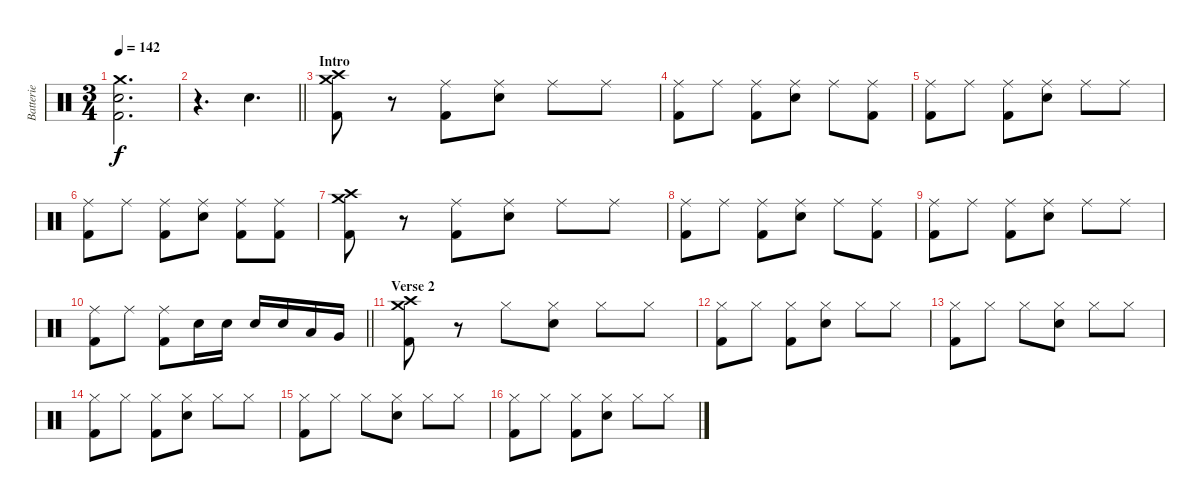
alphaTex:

\track ("Batterie" "Batterie") {instrument percussion}
\staff {score}
\articulation defaults
\ts (3 4)
\tempo 142
\clef neutral
\ks c
("Crash medium (hit)" "Electric Snare (hit)" "Kick (hit) 2").2{d dy f} |
\barLineRight lightlight
r.4{d} "Electric Snare (hit)".4{d} |
\section ("" "Intro")
("Crash medium (hit)" "Crash high (hit)" "Kick (hit) 2").8 r.8 ("Ride (middle)" "Kick (hit) 2").8 ("Ride (middle)" "Electric Snare (hit)").8 "Ride (middle)".8 "Ride (middle)".8 |
("Ride (middle)" "Kick (hit) 2").8 "Ride (middle)".8 ("Ride (middle)" "Kick (hit) 2").8 ("Ride (middle)" "Electric Snare (hit)").8 "Ride (middle)".8 ("Ride (middle)" "Kick (hit) 2").8 |
("Ride (middle)" "Kick (hit) 2").8 "Ride (middle)".8 ("Ride (middle)" "Kick (hit) 2").8 ("Ride (middle)" "Electric Snare (hit)").8 "Ride (middle)".8 "Ride (middle)".8 |
("Ride (middle)" "Kick (hit) 2").8 "Ride (middle)".8 ("Ride (middle)" "Kick (hit) 2").8 ("Ride (middle)" "Electric Snare (hit)").8 ("Ride (middle)" "Kick (hit) 2").8 ("Ride (middle)" "Kick (hit) 2").8 |
("Crash medium (hit)" "Crash high (hit)" "Kick (hit) 2").8 r.8 ("Ride (middle)" "Kick (hit) 2").8 ("Ride (middle)" "Electric Snare (hit)").8 "Ride (middle)".8 "Ride (middle)".8 |
("Ride (middle)" "Kick (hit) 2").8 "Ride (middle)".8 ("Ride (middle)" "Kick (hit) 2").8 ("Ride (middle)" "Electric Snare (hit)").8 "Ride (middle)".8 ("Ride (middle)" "Kick (hit) 2").8 |
("Ride (middle)" "Kick (hit) 2").8 "Ride (middle)".8 ("Ride (middle)" "Kick (hit) 2").8 ("Ride (middle)" "Electric Snare (hit)").8 "Ride (middle)".8 "Ride (middle)".8 |
\barLineRight lightlight
("Ride (middle)" "Kick (hit) 2").8 "Ride (middle)".8 ("Ride (middle)" "Kick (hit) 2").8 "Electric Snare (hit)".16 "Electric Snare (hit)".16 "Electric Snare (hit)".16 "Electric Snare (hit)".16 "Low Tom (hit)".16 "Very Low Tom (hit)".16 |
\section ("" "Verse 2")
("Crash medium (hit)" "Crash high (hit)" "Kick (hit) 2").8 r.8 "Hi-Hat (closed)".8 ("Hi-Hat (closed)" "Electric Snare (hit)").8 "Hi-Hat (closed)".8 "Hi-Hat (closed)".8 |
("Hi-Hat (closed)" "Kick (hit) 2").8 "Hi-Hat (closed)".8 ("Hi-Hat (closed)" "Kick (hit) 2").8 ("Hi-Hat (closed)" "Electric Snare (hit)").8 "Hi-Hat (closed)".8 "Hi-Hat (closed)".8 |
("Hi-Hat (closed)" "Kick (hit) 2").8 "Hi-Hat (closed)".8 "Hi-Hat (closed)".8 ("Hi-Hat (closed)" "Electric Snare (hit)").8 "Hi-Hat (closed)".8 "Hi-Hat (closed)".8 |
("Hi-Hat (closed)" "Kick (hit) 2").8 "Hi-Hat (closed)".8 ("Hi-Hat (closed)" "Kick (hit) 2").8 ("Hi-Hat (closed)" "Electric Snare (hit)").8 "Hi-Hat (closed)".8 "Hi-Hat (closed)".8 |
("Hi-Hat (closed)" "Kick (hit) 2").8 "Hi-Hat (closed)".8 "Hi-Hat (closed)".8 ("Hi-Hat (closed)" "Electric Snare (hit)").8 "Hi-Hat (closed)".8 "Hi-Hat (closed)".8 |
("Hi-Hat (closed)" "Kick (hit) 2").8 "Hi-Hat (closed)".8 ("Hi-Hat (closed)" "Kick (hit) 2").8 ("Hi-Hat (closed)" "Electric Snare (hit)").8 "Hi-Hat (closed)".8 "Hi-Hat (closed)".8
